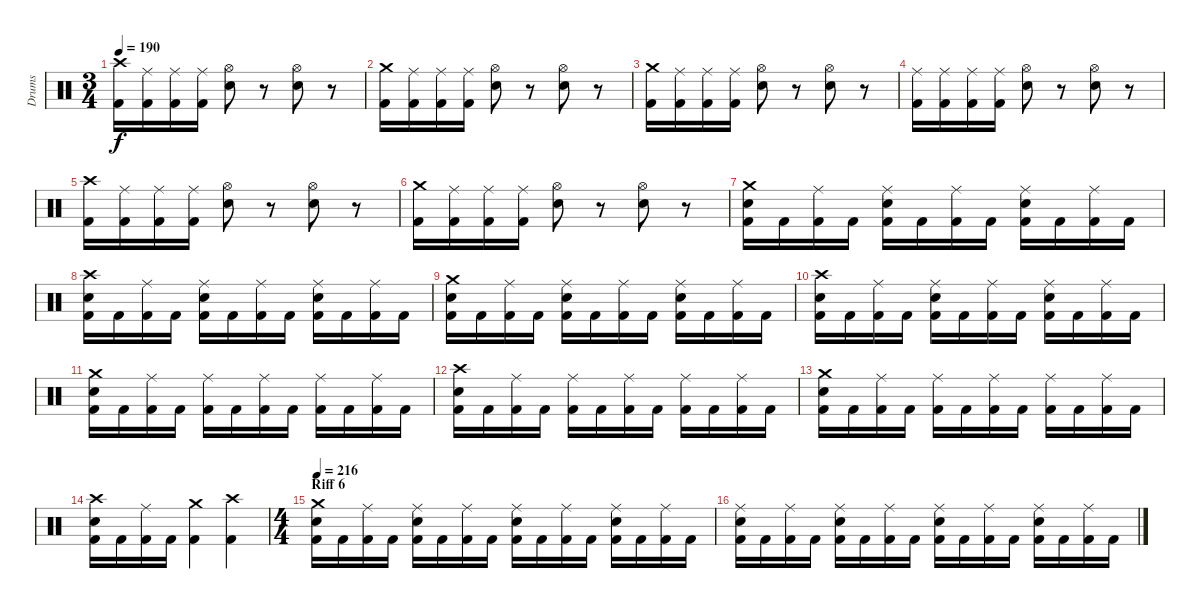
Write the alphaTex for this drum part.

\track ("Drums" "Drums") {instrument percussion}
\staff {score}
\articulation defaults
\ts (3 4)
\tempo 190
\clef neutral
\ks c
("Crash high (hit)" "Kick (hit) 2").16{dy f} ("Ride (middle)" "Kick (hit) 2").16 ("Ride (middle)" "Kick (hit) 2").16 ("Ride (middle)" "Kick (hit) 2").16 ("Hi-Hat (open)" "Electric Snare (hit)").8 r.8 ("Hi-Hat (open)" "Electric Snare (hit)").8 r.8 |
("Crash medium (hit)" "Kick (hit) 2").16 ("Ride (middle)" "Kick (hit) 2").16 ("Ride (middle)" "Kick (hit) 2").16 ("Ride (middle)" "Kick (hit) 2").16 ("Hi-Hat (open)" "Electric Snare (hit)").8 r.8 ("Hi-Hat (open)" "Electric Snare (hit)").8 r.8 |
("Crash medium (hit)" "Kick (hit) 2").16 ("Ride (middle)" "Kick (hit) 2").16 ("Ride (middle)" "Kick (hit) 2").16 ("Ride (middle)" "Kick (hit) 2").16 ("Hi-Hat (open)" "Electric Snare (hit)").8 r.8 ("Hi-Hat (open)" "Electric Snare (hit)").8 r.8 |
("Ride (middle)" "Kick (hit) 2").16 ("Ride (middle)" "Kick (hit) 2").16 ("Ride (middle)" "Kick (hit) 2").16 ("Ride (middle)" "Kick (hit) 2").16 ("Hi-Hat (open)" "Electric Snare (hit)").8 r.8 ("Hi-Hat (open)" "Electric Snare (hit)").8 r.8 |
("Crash high (hit)" "Kick (hit) 2").16 ("Ride (middle)" "Kick (hit) 2").16 ("Ride (middle)" "Kick (hit) 2").16 ("Ride (middle)" "Kick (hit) 2").16 ("Hi-Hat (open)" "Electric Snare (hit)").8 r.8 ("Hi-Hat (open)" "Electric Snare (hit)").8 r.8 |
("Crash medium (hit)" "Kick (hit) 2").16 ("Ride (middle)" "Kick (hit) 2").16 ("Ride (middle)" "Kick (hit) 2").16 ("Ride (middle)" "Kick (hit) 2").16 ("Hi-Hat (open)" "Electric Snare (hit)").8 r.8 ("Hi-Hat (open)" "Electric Snare (hit)").8 r.8 |
("Crash medium (hit)" "Electric Snare (hit)" "Kick (hit) 2").16 "Kick (hit) 2".16 ("Ride (middle)" "Kick (hit) 2").16 "Kick (hit) 2".16 ("Ride (middle)" "Electric Snare (hit)" "Kick (hit) 2").16 "Kick (hit) 2".16 ("Ride (middle)" "Kick (hit) 2").16 "Kick (hit) 2".16 ("Ride (middle)" "Electric Snare (hit)" "Kick (hit) 2").16 "Kick (hit) 2".16 ("Ride (middle)" "Kick (hit) 2").16 "Kick (hit) 2".16 |
("Crash high (hit)" "Electric Snare (hit)" "Kick (hit) 2").16 "Kick (hit) 2".16 ("Ride (middle)" "Kick (hit) 2").16 "Kick (hit) 2".16 ("Ride (middle)" "Electric Snare (hit)" "Kick (hit) 2").16 "Kick (hit) 2".16 ("Ride (middle)" "Kick (hit) 2").16 "Kick (hit) 2".16 ("Ride (middle)" "Electric Snare (hit)" "Kick (hit) 2").16 "Kick (hit) 2".16 ("Ride (middle)" "Kick (hit) 2").16 "Kick (hit) 2".16 |
("Crash medium (hit)" "Electric Snare (hit)" "Kick (hit) 2").16 "Kick (hit) 2".16 ("Ride (middle)" "Kick (hit) 2").16 "Kick (hit) 2".16 ("Ride (middle)" "Electric Snare (hit)" "Kick (hit) 2").16 "Kick (hit) 2".16 ("Ride (middle)" "Kick (hit) 2").16 "Kick (hit) 2".16 ("Ride (middle)" "Electric Snare (hit)" "Kick (hit) 2").16 "Kick (hit) 2".16 ("Ride (middle)" "Kick (hit) 2").16 "Kick (hit) 2".16 |
("Crash high (hit)" "Electric Snare (hit)" "Kick (hit) 2").16 "Kick (hit) 2".16 ("Ride (middle)" "Kick (hit) 2").16 "Kick (hit) 2".16 ("Ride (middle)" "Electric Snare (hit)" "Kick (hit) 2").16 "Kick (hit) 2".16 ("Ride (middle)" "Kick (hit) 2").16 "Kick (hit) 2".16 ("Ride (middle)" "Electric Snare (hit)" "Kick (hit) 2").16 "Kick (hit) 2".16 ("Ride (middle)" "Kick (hit) 2").16 "Kick (hit) 2".16 |
("Crash medium (hit)" "Electric Snare (hit)" "Kick (hit) 2").16 "Kick (hit) 2".16 ("Ride (middle)" "Kick (hit) 2").16 "Kick (hit) 2".16 ("Ride (middle)" "Kick (hit) 2").16 "Kick (hit) 2".16 ("Ride (middle)" "Kick (hit) 2").16 "Kick (hit) 2".16 ("Ride (middle)" "Kick (hit) 2").16 "Kick (hit) 2".16 ("Ride (middle)" "Kick (hit) 2").16 "Kick (hit) 2".16 |
("Crash high (hit)" "Electric Snare (hit)" "Kick (hit) 2").16 "Kick (hit) 2".16 ("Ride (middle)" "Kick (hit) 2").16 "Kick (hit) 2".16 ("Ride (middle)" "Kick (hit) 2").16 "Kick (hit) 2".16 ("Ride (middle)" "Kick (hit) 2").16 "Kick (hit) 2".16 ("Ride (middle)" "Kick (hit) 2").16 "Kick (hit) 2".16 ("Ride (middle)" "Kick (hit) 2").16 "Kick (hit) 2".16 |
("Crash medium (hit)" "Electric Snare (hit)" "Kick (hit) 2").16 "Kick (hit) 2".16 ("Ride (middle)" "Kick (hit) 2").16 "Kick (hit) 2".16 ("Ride (middle)" "Kick (hit) 2").16 "Kick (hit) 2".16 ("Ride (middle)" "Kick (hit) 2").16 "Kick (hit) 2".16 ("Ride (middle)" "Kick (hit) 2").16 "Kick (hit) 2".16 ("Ride (middle)" "Kick (hit) 2").16 "Kick (hit) 2".16 |
("Crash high (hit)" "Electric Snare (hit)" "Kick (hit) 2").16 "Kick (hit) 2".16 ("Ride (middle)" "Kick (hit) 2").16 "Kick (hit) 2".16 ("Crash medium (hit)" "Kick (hit) 2").4 ("Crash high (hit)" "Kick (hit) 2").4 |
\ts (4 4)
\section ("" "Riff 6")
\tempo 216
("Crash medium (hit)" "Electric Snare (hit)" "Kick (hit) 2").16 "Kick (hit) 2".16 ("Ride (middle)" "Kick (hit) 2").16 "Kick (hit) 2".16 ("Ride (middle)" "Electric Snare (hit)" "Kick (hit) 2").16 "Kick (hit) 2".16 ("Ride (middle)" "Kick (hit) 2").16 "Kick (hit) 2".16 ("Ride (middle)" "Electric Snare (hit)" "Kick (hit) 2").16 "Kick (hit) 2".16 ("Ride (middle)" "Kick (hit) 2").16 "Kick (hit) 2".16 ("Ride (middle)" "Electric Snare (hit)" "Kick (hit) 2").16 "Kick (hit) 2".16 ("Ride (middle)" "Kick (hit) 2").16 "Kick (hit) 2".16 |
("Ride (middle)" "Electric Snare (hit)" "Kick (hit) 2").16 "Kick (hit) 2".16 ("Ride (middle)" "Kick (hit) 2").16 "Kick (hit) 2".16 ("Ride (middle)" "Electric Snare (hit)" "Kick (hit) 2").16 "Kick (hit) 2".16 ("Ride (middle)" "Kick (hit) 2").16 "Kick (hit) 2".16 ("Ride (middle)" "Electric Snare (hit)" "Kick (hit) 2").16 "Kick (hit) 2".16 ("Ride (middle)" "Kick (hit) 2").16 "Kick (hit) 2".16 ("Ride (middle)" "Electric Snare (hit)" "Kick (hit) 2").16 "Kick (hit) 2".16 ("Ride (middle)" "Kick (hit) 2").16 "Kick (hit) 2".16
